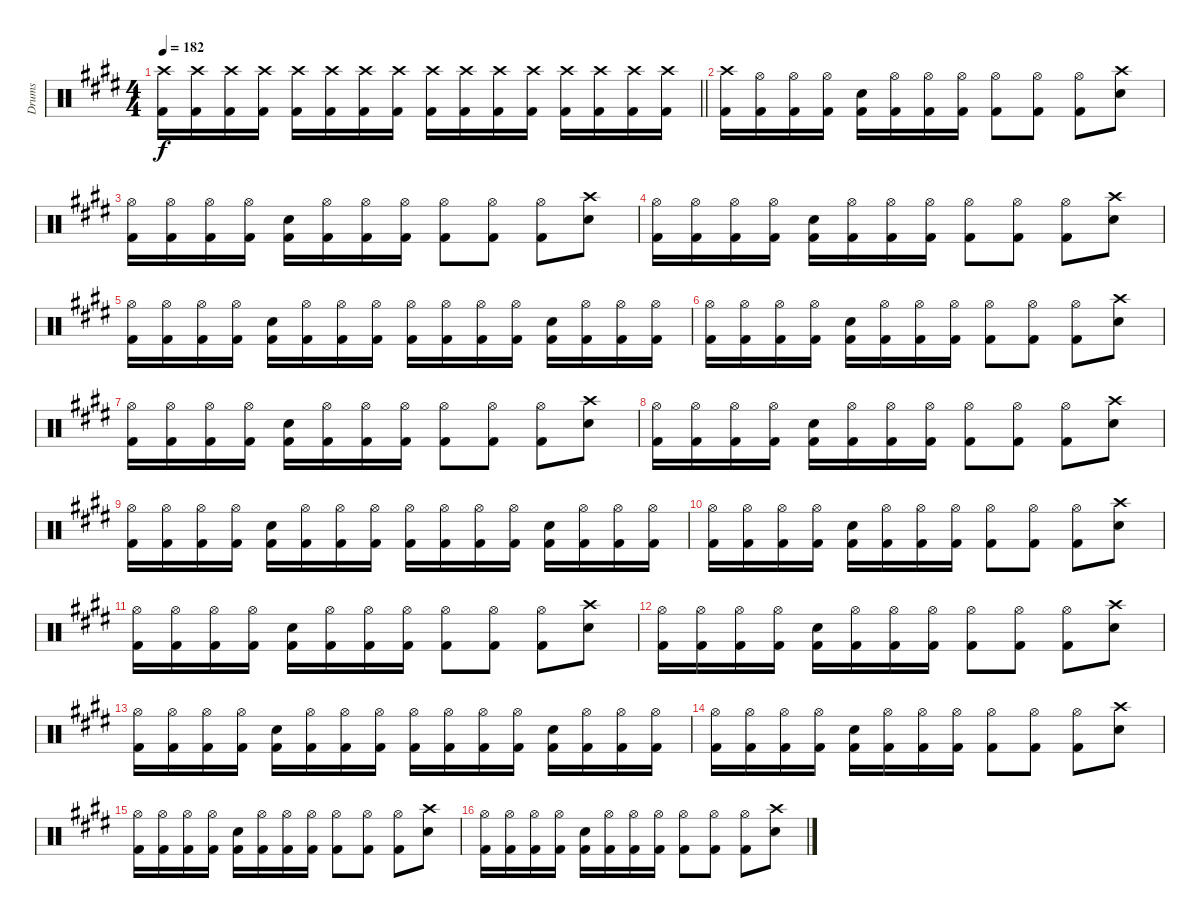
\track ("Drums" "Drums") {instrument percussion}
\staff {score}
\articulation defaults
\ts (4 4)
\tempo 182
\clef neutral
\barLineRight lightlight
\ks c#minor
("Crash high (hit)" "Kick (hit) 2").16{dy f} ("Crash high (hit)" "Kick (hit) 2").16 ("Crash high (hit)" "Kick (hit) 2").16 ("Crash high (hit)" "Kick (hit) 2").16 ("Crash high (hit)" "Kick (hit) 2").16 ("Crash high (hit)" "Kick (hit) 2").16 ("Crash high (hit)" "Kick (hit) 2").16 ("Crash high (hit)" "Kick (hit) 2").16 ("Crash high (hit)" "Kick (hit) 2").16 ("Crash high (hit)" "Kick (hit) 2").16 ("Crash high (hit)" "Kick (hit) 2").16 ("Crash high (hit)" "Kick (hit) 2").16 ("Crash high (hit)" "Kick (hit) 2").16 ("Crash high (hit)" "Kick (hit) 2").16 ("Crash high (hit)" "Kick (hit) 2").16 ("Crash high (hit)" "Kick (hit) 2").16 |
("Crash high (hit)" "Kick (hit) 2").16 ("Hi-Hat (open)" "Kick (hit) 2").16 ("Hi-Hat (open)" "Kick (hit) 2").16 ("Hi-Hat (open)" "Kick (hit) 2").16 ("Snare (hit) 2" "Kick (hit) 2").16 ("Hi-Hat (open)" "Kick (hit) 2").16 ("Hi-Hat (open)" "Kick (hit) 2").16 ("Hi-Hat (open)" "Kick (hit) 2").16 ("Hi-Hat (open)" "Kick (hit) 2").8 ("Hi-Hat (open)" "Kick (hit) 2").8 ("Hi-Hat (open)" "Kick (hit) 2").8 ("Crash high (hit)" "Snare (hit) 2").8 |
("Hi-Hat (open)" "Kick (hit) 2").16 ("Hi-Hat (open)" "Kick (hit) 2").16 ("Hi-Hat (open)" "Kick (hit) 2").16 ("Hi-Hat (open)" "Kick (hit) 2").16 ("Snare (hit) 2" "Kick (hit) 2").16 ("Hi-Hat (open)" "Kick (hit) 2").16 ("Hi-Hat (open)" "Kick (hit) 2").16 ("Hi-Hat (open)" "Kick (hit) 2").16 ("Hi-Hat (open)" "Kick (hit) 2").8 ("Hi-Hat (open)" "Kick (hit) 2").8 ("Hi-Hat (open)" "Kick (hit) 2").8 ("Crash high (hit)" "Snare (hit) 2").8 |
("Hi-Hat (open)" "Kick (hit) 2").16 ("Hi-Hat (open)" "Kick (hit) 2").16 ("Hi-Hat (open)" "Kick (hit) 2").16 ("Hi-Hat (open)" "Kick (hit) 2").16 ("Snare (hit) 2" "Kick (hit) 2").16 ("Hi-Hat (open)" "Kick (hit) 2").16 ("Hi-Hat (open)" "Kick (hit) 2").16 ("Hi-Hat (open)" "Kick (hit) 2").16 ("Hi-Hat (open)" "Kick (hit) 2").8 ("Hi-Hat (open)" "Kick (hit) 2").8 ("Hi-Hat (open)" "Kick (hit) 2").8 ("Crash high (hit)" "Snare (hit) 2").8 |
("Hi-Hat (open)" "Kick (hit) 2").16 ("Hi-Hat (open)" "Kick (hit) 2").16 ("Hi-Hat (open)" "Kick (hit) 2").16 ("Hi-Hat (open)" "Kick (hit) 2").16 ("Snare (hit) 2" "Kick (hit) 2").16 ("Hi-Hat (open)" "Kick (hit) 2").16 ("Hi-Hat (open)" "Kick (hit) 2").16 ("Hi-Hat (open)" "Kick (hit) 2").16 ("Hi-Hat (open)" "Kick (hit) 2").16 ("Hi-Hat (open)" "Kick (hit) 2").16 ("Hi-Hat (open)" "Kick (hit) 2").16 ("Hi-Hat (open)" "Kick (hit) 2").16 ("Snare (hit) 2" "Kick (hit) 2").16 ("Hi-Hat (open)" "Kick (hit) 2").16 ("Hi-Hat (open)" "Kick (hit) 2").16 ("Hi-Hat (open)" "Kick (hit) 2").16 |
("Hi-Hat (open)" "Kick (hit) 2").16 ("Hi-Hat (open)" "Kick (hit) 2").16 ("Hi-Hat (open)" "Kick (hit) 2").16 ("Hi-Hat (open)" "Kick (hit) 2").16 ("Snare (hit) 2" "Kick (hit) 2").16 ("Hi-Hat (open)" "Kick (hit) 2").16 ("Hi-Hat (open)" "Kick (hit) 2").16 ("Hi-Hat (open)" "Kick (hit) 2").16 ("Hi-Hat (open)" "Kick (hit) 2").8 ("Hi-Hat (open)" "Kick (hit) 2").8 ("Hi-Hat (open)" "Kick (hit) 2").8 ("Crash high (hit)" "Snare (hit) 2").8 |
("Hi-Hat (open)" "Kick (hit) 2").16 ("Hi-Hat (open)" "Kick (hit) 2").16 ("Hi-Hat (open)" "Kick (hit) 2").16 ("Hi-Hat (open)" "Kick (hit) 2").16 ("Snare (hit) 2" "Kick (hit) 2").16 ("Hi-Hat (open)" "Kick (hit) 2").16 ("Hi-Hat (open)" "Kick (hit) 2").16 ("Hi-Hat (open)" "Kick (hit) 2").16 ("Hi-Hat (open)" "Kick (hit) 2").8 ("Hi-Hat (open)" "Kick (hit) 2").8 ("Hi-Hat (open)" "Kick (hit) 2").8 ("Crash high (hit)" "Snare (hit) 2").8 |
("Hi-Hat (open)" "Kick (hit) 2").16 ("Hi-Hat (open)" "Kick (hit) 2").16 ("Hi-Hat (open)" "Kick (hit) 2").16 ("Hi-Hat (open)" "Kick (hit) 2").16 ("Snare (hit) 2" "Kick (hit) 2").16 ("Hi-Hat (open)" "Kick (hit) 2").16 ("Hi-Hat (open)" "Kick (hit) 2").16 ("Hi-Hat (open)" "Kick (hit) 2").16 ("Hi-Hat (open)" "Kick (hit) 2").8 ("Hi-Hat (open)" "Kick (hit) 2").8 ("Hi-Hat (open)" "Kick (hit) 2").8 ("Crash high (hit)" "Snare (hit) 2").8 |
("Hi-Hat (open)" "Kick (hit) 2").16 ("Hi-Hat (open)" "Kick (hit) 2").16 ("Hi-Hat (open)" "Kick (hit) 2").16 ("Hi-Hat (open)" "Kick (hit) 2").16 ("Snare (hit) 2" "Kick (hit) 2").16 ("Hi-Hat (open)" "Kick (hit) 2").16 ("Hi-Hat (open)" "Kick (hit) 2").16 ("Hi-Hat (open)" "Kick (hit) 2").16 ("Hi-Hat (open)" "Kick (hit) 2").16 ("Hi-Hat (open)" "Kick (hit) 2").16 ("Hi-Hat (open)" "Kick (hit) 2").16 ("Hi-Hat (open)" "Kick (hit) 2").16 ("Snare (hit) 2" "Kick (hit) 2").16 ("Hi-Hat (open)" "Kick (hit) 2").16 ("Hi-Hat (open)" "Kick (hit) 2").16 ("Hi-Hat (open)" "Kick (hit) 2").16 |
("Hi-Hat (open)" "Kick (hit) 2").16 ("Hi-Hat (open)" "Kick (hit) 2").16 ("Hi-Hat (open)" "Kick (hit) 2").16 ("Hi-Hat (open)" "Kick (hit) 2").16 ("Snare (hit) 2" "Kick (hit) 2").16 ("Hi-Hat (open)" "Kick (hit) 2").16 ("Hi-Hat (open)" "Kick (hit) 2").16 ("Hi-Hat (open)" "Kick (hit) 2").16 ("Hi-Hat (open)" "Kick (hit) 2").8 ("Hi-Hat (open)" "Kick (hit) 2").8 ("Hi-Hat (open)" "Kick (hit) 2").8 ("Crash high (hit)" "Snare (hit) 2").8 |
("Hi-Hat (open)" "Kick (hit) 2").16 ("Hi-Hat (open)" "Kick (hit) 2").16 ("Hi-Hat (open)" "Kick (hit) 2").16 ("Hi-Hat (open)" "Kick (hit) 2").16 ("Snare (hit) 2" "Kick (hit) 2").16 ("Hi-Hat (open)" "Kick (hit) 2").16 ("Hi-Hat (open)" "Kick (hit) 2").16 ("Hi-Hat (open)" "Kick (hit) 2").16 ("Hi-Hat (open)" "Kick (hit) 2").8 ("Hi-Hat (open)" "Kick (hit) 2").8 ("Hi-Hat (open)" "Kick (hit) 2").8 ("Crash high (hit)" "Snare (hit) 2").8 |
("Hi-Hat (open)" "Kick (hit) 2").16 ("Hi-Hat (open)" "Kick (hit) 2").16 ("Hi-Hat (open)" "Kick (hit) 2").16 ("Hi-Hat (open)" "Kick (hit) 2").16 ("Snare (hit) 2" "Kick (hit) 2").16 ("Hi-Hat (open)" "Kick (hit) 2").16 ("Hi-Hat (open)" "Kick (hit) 2").16 ("Hi-Hat (open)" "Kick (hit) 2").16 ("Hi-Hat (open)" "Kick (hit) 2").8 ("Hi-Hat (open)" "Kick (hit) 2").8 ("Hi-Hat (open)" "Kick (hit) 2").8 ("Crash high (hit)" "Snare (hit) 2").8 |
("Hi-Hat (open)" "Kick (hit) 2").16 ("Hi-Hat (open)" "Kick (hit) 2").16 ("Hi-Hat (open)" "Kick (hit) 2").16 ("Hi-Hat (open)" "Kick (hit) 2").16 ("Snare (hit) 2" "Kick (hit) 2").16 ("Hi-Hat (open)" "Kick (hit) 2").16 ("Hi-Hat (open)" "Kick (hit) 2").16 ("Hi-Hat (open)" "Kick (hit) 2").16 ("Hi-Hat (open)" "Kick (hit) 2").16 ("Hi-Hat (open)" "Kick (hit) 2").16 ("Hi-Hat (open)" "Kick (hit) 2").16 ("Hi-Hat (open)" "Kick (hit) 2").16 ("Snare (hit) 2" "Kick (hit) 2").16 ("Hi-Hat (open)" "Kick (hit) 2").16 ("Hi-Hat (open)" "Kick (hit) 2").16 ("Hi-Hat (open)" "Kick (hit) 2").16 |
("Hi-Hat (open)" "Kick (hit) 2").16 ("Hi-Hat (open)" "Kick (hit) 2").16 ("Hi-Hat (open)" "Kick (hit) 2").16 ("Hi-Hat (open)" "Kick (hit) 2").16 ("Snare (hit) 2" "Kick (hit) 2").16 ("Hi-Hat (open)" "Kick (hit) 2").16 ("Hi-Hat (open)" "Kick (hit) 2").16 ("Hi-Hat (open)" "Kick (hit) 2").16 ("Hi-Hat (open)" "Kick (hit) 2").8 ("Hi-Hat (open)" "Kick (hit) 2").8 ("Hi-Hat (open)" "Kick (hit) 2").8 ("Crash high (hit)" "Snare (hit) 2").8 |
("Hi-Hat (open)" "Kick (hit) 2").16 ("Hi-Hat (open)" "Kick (hit) 2").16 ("Hi-Hat (open)" "Kick (hit) 2").16 ("Hi-Hat (open)" "Kick (hit) 2").16 ("Snare (hit) 2" "Kick (hit) 2").16 ("Hi-Hat (open)" "Kick (hit) 2").16 ("Hi-Hat (open)" "Kick (hit) 2").16 ("Hi-Hat (open)" "Kick (hit) 2").16 ("Hi-Hat (open)" "Kick (hit) 2").8 ("Hi-Hat (open)" "Kick (hit) 2").8 ("Hi-Hat (open)" "Kick (hit) 2").8 ("Crash high (hit)" "Snare (hit) 2").8 |
("Hi-Hat (open)" "Kick (hit) 2").16 ("Hi-Hat (open)" "Kick (hit) 2").16 ("Hi-Hat (open)" "Kick (hit) 2").16 ("Hi-Hat (open)" "Kick (hit) 2").16 ("Snare (hit) 2" "Kick (hit) 2").16 ("Hi-Hat (open)" "Kick (hit) 2").16 ("Hi-Hat (open)" "Kick (hit) 2").16 ("Hi-Hat (open)" "Kick (hit) 2").16 ("Hi-Hat (open)" "Kick (hit) 2").8 ("Hi-Hat (open)" "Kick (hit) 2").8 ("Hi-Hat (open)" "Kick (hit) 2").8 ("Crash high (hit)" "Snare (hit) 2").8
